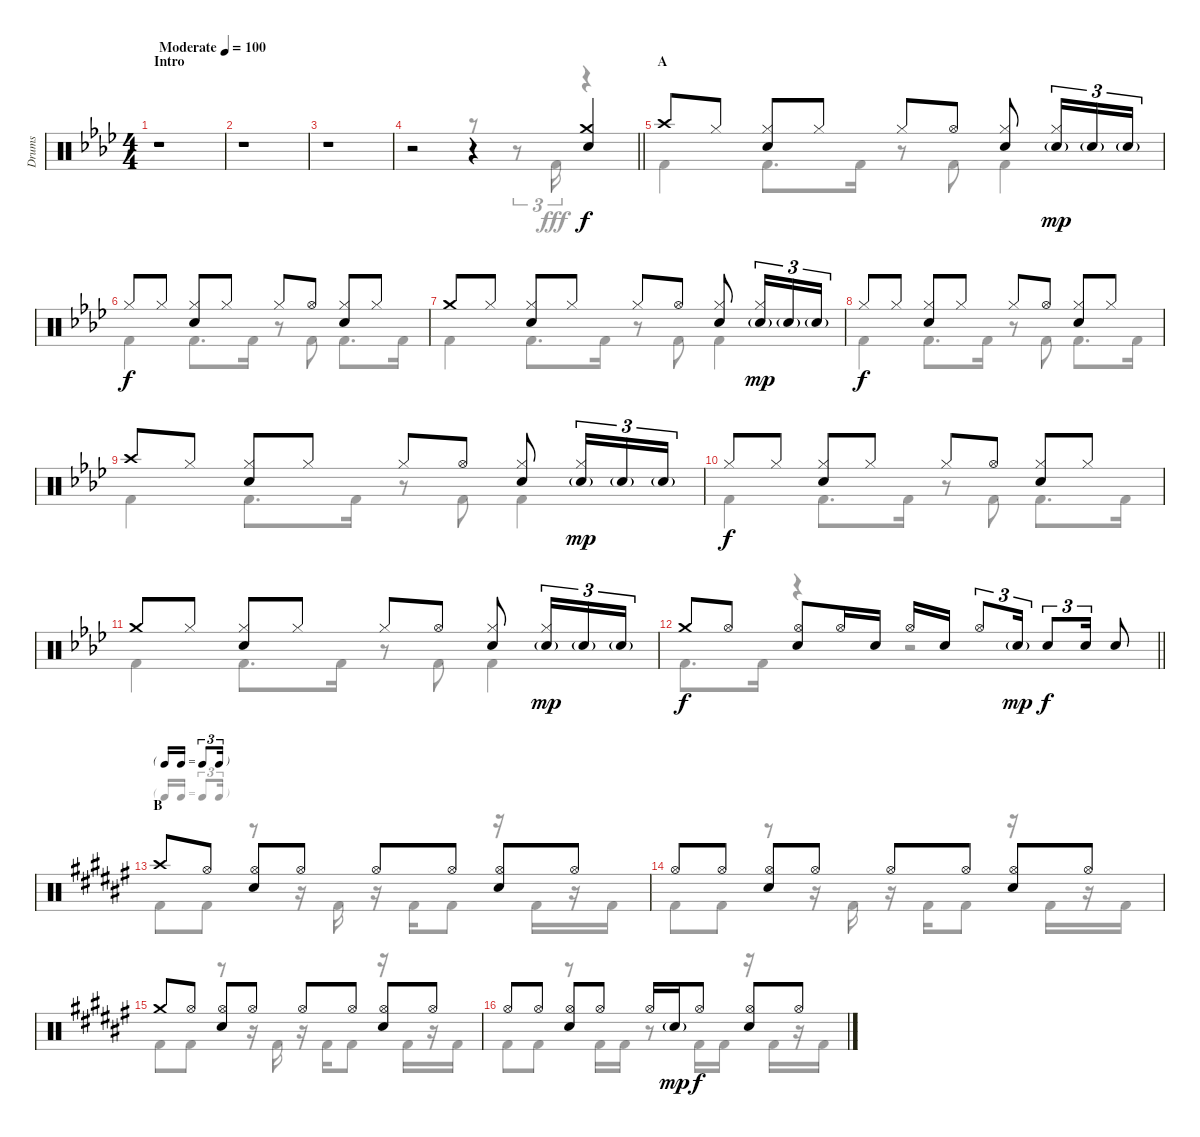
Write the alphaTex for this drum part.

\track ("Drums" "Drums") {instrument percussion}
\staff {score}
\articulation defaults
\voice
\ts (4 4)
\section ("" "Intro")
\tempo (100 "Moderate")
\clef neutral
\ks fminor
r.1{dy f} |
r.1 |
r.1 |
\barLineRight lightlight
r.2 r.4 ("Crash medium (hit)" "Snare (hit) 2").4 |
\section ("" "A")
"Crash high (hit)".8 "Hi-Hat (closed)".8 ("Hi-Hat (closed)" "Snare (hit) 2").8 "Hi-Hat (closed)".8 "Hi-Hat (closed)".8 "Hi-Hat (open)".8 ("Hi-Hat (closed)" "Snare (hit) 2").8 ("Hi-Hat (closed)" "Snare (hit) 2"{g}).16{tu (3 2) dy mp} "Snare (hit) 2"{g}.16{tu (3 2)} "Snare (hit) 2"{g}.16{tu (3 2)} |
"Hi-Hat (closed)".8{dy f} "Hi-Hat (closed)".8 ("Hi-Hat (closed)" "Snare (hit) 2").8 "Hi-Hat (closed)".8 "Hi-Hat (closed)".8 "Hi-Hat (open)".8 ("Hi-Hat (closed)" "Snare (hit) 2").8 "Hi-Hat (closed)".8 |
"Crash medium (hit)".8 "Hi-Hat (closed)".8 ("Hi-Hat (closed)" "Snare (hit) 2").8 "Hi-Hat (closed)".8 "Hi-Hat (closed)".8 "Hi-Hat (open)".8 ("Hi-Hat (closed)" "Snare (hit) 2").8 ("Hi-Hat (closed)" "Snare (hit) 2"{g}).16{tu (3 2) dy mp} "Snare (hit) 2"{g}.16{tu (3 2)} "Snare (hit) 2"{g}.16{tu (3 2)} |
"Hi-Hat (closed)".8{dy f} "Hi-Hat (closed)".8 ("Hi-Hat (closed)" "Snare (hit) 2").8 "Hi-Hat (closed)".8 "Hi-Hat (closed)".8 "Hi-Hat (open)".8 ("Hi-Hat (closed)" "Snare (hit) 2").8 "Hi-Hat (closed)".8 |
"Crash high (hit)".8 "Hi-Hat (closed)".8 ("Hi-Hat (closed)" "Snare (hit) 2").8 "Hi-Hat (closed)".8 "Hi-Hat (closed)".8 "Hi-Hat (open)".8 ("Hi-Hat (closed)" "Snare (hit) 2").8 ("Hi-Hat (closed)" "Snare (hit) 2"{g}).16{tu (3 2) dy mp} "Snare (hit) 2"{g}.16{tu (3 2)} "Snare (hit) 2"{g}.16{tu (3 2)} |
"Hi-Hat (closed)".8{dy f} "Hi-Hat (closed)".8 ("Hi-Hat (closed)" "Snare (hit) 2").8 "Hi-Hat (closed)".8 "Hi-Hat (closed)".8 "Hi-Hat (open)".8 ("Hi-Hat (closed)" "Snare (hit) 2").8 "Hi-Hat (closed)".8 |
"Crash medium (hit)".8 "Hi-Hat (closed)".8 ("Hi-Hat (closed)" "Snare (hit) 2").8 "Hi-Hat (closed)".8 "Hi-Hat (closed)".8 "Hi-Hat (open)".8 ("Hi-Hat (closed)" "Snare (hit) 2").8 ("Hi-Hat (closed)" "Snare (hit) 2"{g}).16{tu (3 2) dy mp} "Snare (hit) 2"{g}.16{tu (3 2)} "Snare (hit) 2"{g}.16{tu (3 2)} |
\barLineRight lightlight "Crash medium (hit)".8{dy f} "Hi-Hat (open)".8
("Hi-Hat (open)" "Snare (hit) 2").8 "Hi-Hat (open)".16 "Snare (hit) 2".16 "Hi-Hat (open)".16 "Snare (hit) 2".16 "Hi-Hat (open)".8{tu (3 2)} "Snare (hit) 2"{g}.16{tu (3 2) dy mp} "Snare (hit) 2".8{tu (3 2) dy f} "Snare (hit) 2".16{tu (3 2)} "Snare (hit) 2".8 |
\tf triplet16th
\section ("" "B")
\ks f# "Crash high (hit)".8 "Hi-Hat (open)".8
("Hi-Hat (open)" "Snare (hit) 2").8 "Hi-Hat (open)".8 "Hi-Hat (open)".8 "Hi-Hat (open)".8 ("Hi-Hat (open)" "Snare (hit) 2").8 "Hi-Hat (open)".8 |
"Hi-Hat (open)".8 "Hi-Hat (open)".8 ("Hi-Hat (open)" "Snare (hit) 2").8 "Hi-Hat (open)".8 "Hi-Hat (open)".8 "Hi-Hat (open)".8 ("Hi-Hat (open)" "Snare (hit) 2").8 "Hi-Hat (open)".8 |
"Crash medium (hit)".8 "Hi-Hat (open)".8 ("Hi-Hat (open)" "Snare (hit) 2").8 "Hi-Hat (open)".8 "Hi-Hat (open)".8 "Hi-Hat (open)".8 ("Hi-Hat (open)" "Snare (hit) 2").8 "Hi-Hat (open)".8 |
"Hi-Hat (open)".8 "Hi-Hat (open)".8 ("Hi-Hat (open)" "Snare (hit) 2").8 "Hi-Hat (open)".8 "Hi-Hat (open)".16 "Snare (hit) 2"{g}.16{dy mp} "Hi-Hat (open)".8{dy f} ("Hi-Hat (open)" "Snare (hit) 2").8 "Hi-Hat (open)".8
\voice
\clef neutral
\ottava regular
\simile none
\ks fminor
r.1{dy fff} |
r.1 |
r.1 |
\barLineRight lightlight
r.2 r.8 r.8{tu (3 2)} "Kick (hit) 2".16{tu (3 2)} r.4 |
"Kick (hit) 2".4 "Kick (hit) 2".8{d} "Kick (hit) 2".16 r.8 "Kick (hit) 2".8 "Kick (hit) 2".4 |
"Kick (hit) 2".4 "Kick (hit) 2".8{d} "Kick (hit) 2".16 r.8 "Kick (hit) 2".8 "Kick (hit) 2".8{d} "Kick (hit) 2".16 |
"Kick (hit) 2".4 "Kick (hit) 2".8{d} "Kick (hit) 2".16 r.8 "Kick (hit) 2".8 "Kick (hit) 2".4 |
"Kick (hit) 2".4 "Kick (hit) 2".8{d} "Kick (hit) 2".16 r.8 "Kick (hit) 2".8 "Kick (hit) 2".8{d} "Kick (hit) 2".16 |
"Kick (hit) 2".4 "Kick (hit) 2".8{d} "Kick (hit) 2".16 r.8 "Kick (hit) 2".8 "Kick (hit) 2".4 |
"Kick (hit) 2".4 "Kick (hit) 2".8{d} "Kick (hit) 2".16 r.8 "Kick (hit) 2".8 "Kick (hit) 2".8{d} "Kick (hit) 2".16 |
"Kick (hit) 2".4 "Kick (hit) 2".8{d} "Kick (hit) 2".16 r.8 "Kick (hit) 2".8 "Kick (hit) 2".4 |
\barLineRight lightlight "Kick (hit) 2".8{d} "Kick (hit) 2".16
r.4 r.2 |
\ks f# "Kick (hit) 2".8 "Kick (hit) 2".8
r.8 r.16 "Kick (hit) 2".16 r.16 "Kick (hit) 2".16 "Kick (hit) 2".8 r.16 "Kick (hit) 2".16 r.16 "Kick (hit) 2".16 |
"Kick (hit) 2".8 "Kick (hit) 2".8 r.8 r.16 "Kick (hit) 2".16 r.16 "Kick (hit) 2".16 "Kick (hit) 2".8 r.16 "Kick (hit) 2".16 r.16 "Kick (hit) 2".16 |
"Kick (hit) 2".8 "Kick (hit) 2".8 r.8 r.16 "Kick (hit) 2".16 r.16 "Kick (hit) 2".16 "Kick (hit) 2".8 r.16 "Kick (hit) 2".16 r.16 "Kick (hit) 2".16 |
"Kick (hit) 2".8 "Kick (hit) 2".8 r.8 "Kick (hit) 2".16 "Kick (hit) 2".16 r.8 "Kick (hit) 2".16 "Kick (hit) 2".16 r.16 "Kick (hit) 2".16 r.16 "Kick (hit) 2".16
